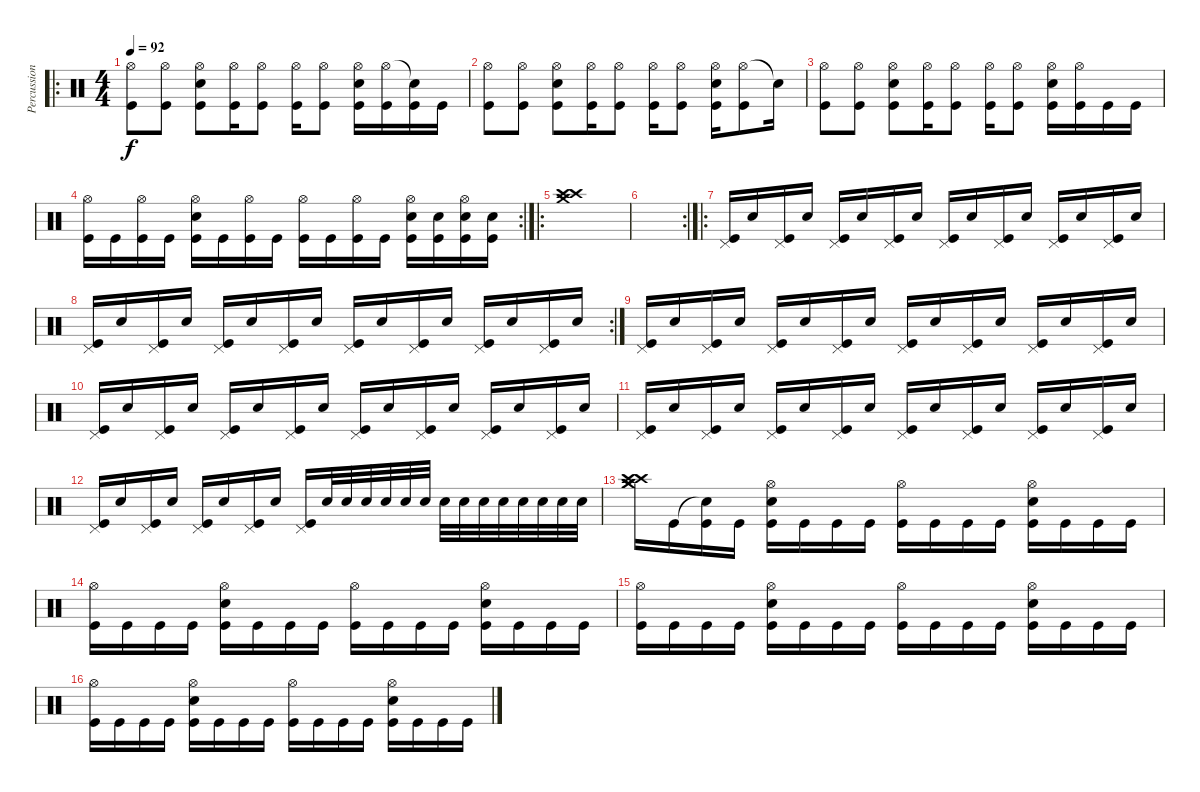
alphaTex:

\track ("Percussion" "Percussion") {instrument percussion}
\staff {score}
\articulation defaults
\ro
\ts (4 4)
\tempo 92
\clef neutral
\ks c
("Hi-Hat (open)" "Kick (hit)").8{dy f} ("Hi-Hat (open)" "Kick (hit)").8 ("Hi-Hat (open)" "Electric Snare (hit)" "Kick (hit)").8 ("Hi-Hat (open)" "Kick (hit)").16 ("Hi-Hat (open)" "Kick (hit)").8 ("Hi-Hat (open)" "Kick (hit)").16 ("Hi-Hat (open)" "Kick (hit)").8 ("Hi-Hat (open)" "Electric Snare (hit)" "Kick (hit)").16 ("Hi-Hat (open)" "Kick (hit)").16 ("Snare (hit)"{t} "Kick (hit)").16 "Kick (hit)".16 |
("Hi-Hat (open)" "Kick (hit)").8 ("Hi-Hat (open)" "Kick (hit)").8 ("Hi-Hat (open)" "Electric Snare (hit)" "Kick (hit)").8 ("Hi-Hat (open)" "Kick (hit)").16 ("Hi-Hat (open)" "Kick (hit)").8 ("Hi-Hat (open)" "Kick (hit)").16 ("Hi-Hat (open)" "Kick (hit)").8 ("Hi-Hat (open)" "Electric Snare (hit)" "Kick (hit)").16 ("Hi-Hat (open)" "Kick (hit)").8 "Snare (hit)"{t}.16 |
("Hi-Hat (open)" "Kick (hit)").8 ("Hi-Hat (open)" "Kick (hit)").8 ("Hi-Hat (open)" "Electric Snare (hit)" "Kick (hit)").8 ("Hi-Hat (open)" "Kick (hit)").16 ("Hi-Hat (open)" "Kick (hit)").8 ("Hi-Hat (open)" "Kick (hit)").16 ("Hi-Hat (open)" "Kick (hit)").8 ("Hi-Hat (open)" "Electric Snare (hit)" "Kick (hit)").16 ("Hi-Hat (open)" "Kick (hit)").16 "Kick (hit)".16 "Kick (hit)".16 |
\rc 2
("Hi-Hat (open)" "Kick (hit)").16 "Kick (hit)".16 ("Hi-Hat (open)" "Kick (hit)").16 "Kick (hit)".16 ("Hi-Hat (open)" "Electric Snare (hit)" "Kick (hit)").16 "Kick (hit)".16 ("Hi-Hat (open)" "Kick (hit)").16 "Kick (hit)".16 ("Hi-Hat (open)" "Kick (hit)").16 "Kick (hit)".16 ("Hi-Hat (open)" "Kick (hit)").16 "Kick (hit)".16 ("Hi-Hat (open)" "Electric Snare (hit)" "Kick (hit)").16 ("Electric Snare (hit)" "Kick (hit)").16 ("Hi-Hat (open)" "Electric Snare (hit)" "Kick (hit)").16 ("Electric Snare (hit)" "Kick (hit)").16 |
\ro
("Crash high (hit)" "Crash high (hit)" "Crash medium (hit)").1 |
\rc 2
|
\ro
("Pedal Hi-Hat (hit)" "Kick (hit)").16 "Electric Snare (hit)".16 ("Pedal Hi-Hat (hit)" "Kick (hit)").16 "Electric Snare (hit)".16 ("Pedal Hi-Hat (hit)" "Kick (hit)").16 "Electric Snare (hit)".16 ("Pedal Hi-Hat (hit)" "Kick (hit)").16 "Electric Snare (hit)".16 ("Pedal Hi-Hat (hit)" "Kick (hit)").16 "Electric Snare (hit)".16 ("Pedal Hi-Hat (hit)" "Kick (hit)").16 "Electric Snare (hit)".16 ("Pedal Hi-Hat (hit)" "Kick (hit)").16 "Electric Snare (hit)".16 ("Pedal Hi-Hat (hit)" "Kick (hit)").16 "Electric Snare (hit)".16 |
\rc 2
("Pedal Hi-Hat (hit)" "Kick (hit)").16 "Electric Snare (hit)".16 ("Pedal Hi-Hat (hit)" "Kick (hit)").16 "Electric Snare (hit)".16 ("Pedal Hi-Hat (hit)" "Kick (hit)").16 "Electric Snare (hit)".16 ("Pedal Hi-Hat (hit)" "Kick (hit)").16 "Electric Snare (hit)".16 ("Pedal Hi-Hat (hit)" "Kick (hit)").16 "Electric Snare (hit)".16 ("Pedal Hi-Hat (hit)" "Kick (hit)").16 "Electric Snare (hit)".16 ("Pedal Hi-Hat (hit)" "Kick (hit)").16 "Electric Snare (hit)".16 ("Pedal Hi-Hat (hit)" "Kick (hit)").16 "Electric Snare (hit)".16 |
("Pedal Hi-Hat (hit)" "Kick (hit)").16 "Electric Snare (hit)".16 ("Pedal Hi-Hat (hit)" "Kick (hit)").16 "Electric Snare (hit)".16 ("Pedal Hi-Hat (hit)" "Kick (hit)").16 "Electric Snare (hit)".16 ("Pedal Hi-Hat (hit)" "Kick (hit)").16 "Electric Snare (hit)".16 ("Pedal Hi-Hat (hit)" "Kick (hit)").16 "Electric Snare (hit)".16 ("Pedal Hi-Hat (hit)" "Kick (hit)").16 "Electric Snare (hit)".16 ("Pedal Hi-Hat (hit)" "Kick (hit)").16 "Electric Snare (hit)".16 ("Pedal Hi-Hat (hit)" "Kick (hit)").16 "Electric Snare (hit)".16 |
("Pedal Hi-Hat (hit)" "Kick (hit)").16 "Electric Snare (hit)".16 ("Pedal Hi-Hat (hit)" "Kick (hit)").16 "Electric Snare (hit)".16 ("Pedal Hi-Hat (hit)" "Kick (hit)").16 "Electric Snare (hit)".16 ("Pedal Hi-Hat (hit)" "Kick (hit)").16 "Electric Snare (hit)".16 ("Pedal Hi-Hat (hit)" "Kick (hit)").16 "Electric Snare (hit)".16 ("Pedal Hi-Hat (hit)" "Kick (hit)").16 "Electric Snare (hit)".16 ("Pedal Hi-Hat (hit)" "Kick (hit)").16 "Electric Snare (hit)".16 ("Pedal Hi-Hat (hit)" "Kick (hit)").16 "Electric Snare (hit)".16 |
("Pedal Hi-Hat (hit)" "Kick (hit)").16 "Electric Snare (hit)".16 ("Pedal Hi-Hat (hit)" "Kick (hit)").16 "Electric Snare (hit)".16 ("Pedal Hi-Hat (hit)" "Kick (hit)").16 "Electric Snare (hit)".16 ("Pedal Hi-Hat (hit)" "Kick (hit)").16 "Electric Snare (hit)".16 ("Pedal Hi-Hat (hit)" "Kick (hit)").16 "Electric Snare (hit)".16 ("Pedal Hi-Hat (hit)" "Kick (hit)").16 "Electric Snare (hit)".16 ("Pedal Hi-Hat (hit)" "Kick (hit)").16 "Electric Snare (hit)".16 ("Pedal Hi-Hat (hit)" "Kick (hit)").16 "Electric Snare (hit)".16 |
("Pedal Hi-Hat (hit)" "Kick (hit)").16 "Electric Snare (hit)".16 ("Pedal Hi-Hat (hit)" "Kick (hit)").16 "Electric Snare (hit)".16 ("Pedal Hi-Hat (hit)" "Kick (hit)").16 "Electric Snare (hit)".16 ("Pedal Hi-Hat (hit)" "Kick (hit)").16 "Electric Snare (hit)".16 ("Pedal Hi-Hat (hit)" "Kick (hit)").16 "Electric Snare (hit)".32 "Electric Snare (hit)".32 "Electric Snare (hit)".32 "Electric Snare (hit)".32 "Electric Snare (hit)".32 "Electric Snare (hit)".32 "Electric Snare (hit)".32 "Electric Snare (hit)".32 "Electric Snare (hit)".32 "Electric Snare (hit)".32 "Electric Snare (hit)".32 "Electric Snare (hit)".32 "Electric Snare (hit)".32 "Electric Snare (hit)".32 |
("Crash high (hit)" "Crash high (hit)" "Crash medium (hit)" "Crash medium (hit)").16 "Kick (hit)".16 ("Snare (hit)"{t} "Kick (hit)").16 "Kick (hit)".16 ("Hi-Hat (open)" "Electric Snare (hit)" "Kick (hit)").16 "Kick (hit)".16 "Kick (hit)".16 "Kick (hit)".16 ("Hi-Hat (open)" "Kick (hit)").16 "Kick (hit)".16 "Kick (hit)".16 "Kick (hit)".16 ("Hi-Hat (open)" "Electric Snare (hit)" "Kick (hit)").16 "Kick (hit)".16 "Kick (hit)".16 "Kick (hit)".16 |
("Hi-Hat (open)" "Kick (hit)").16 "Kick (hit)".16 "Kick (hit)".16 "Kick (hit)".16 ("Hi-Hat (open)" "Electric Snare (hit)" "Kick (hit)").16 "Kick (hit)".16 "Kick (hit)".16 "Kick (hit)".16 ("Hi-Hat (open)" "Kick (hit)").16 "Kick (hit)".16 "Kick (hit)".16 "Kick (hit)".16 ("Hi-Hat (open)" "Electric Snare (hit)" "Kick (hit)").16 "Kick (hit)".16 "Kick (hit)".16 "Kick (hit)".16 |
("Hi-Hat (open)" "Kick (hit)").16 "Kick (hit)".16 "Kick (hit)".16 "Kick (hit)".16 ("Hi-Hat (open)" "Electric Snare (hit)" "Kick (hit)").16 "Kick (hit)".16 "Kick (hit)".16 "Kick (hit)".16 ("Hi-Hat (open)" "Kick (hit)").16 "Kick (hit)".16 "Kick (hit)".16 "Kick (hit)".16 ("Hi-Hat (open)" "Electric Snare (hit)" "Kick (hit)").16 "Kick (hit)".16 "Kick (hit)".16 "Kick (hit)".16 |
("Hi-Hat (open)" "Kick (hit)").16 "Kick (hit)".16 "Kick (hit)".16 "Kick (hit)".16 ("Hi-Hat (open)" "Electric Snare (hit)" "Kick (hit)").16 "Kick (hit)".16 "Kick (hit)".16 "Kick (hit)".16 ("Hi-Hat (open)" "Kick (hit)").16 "Kick (hit)".16 "Kick (hit)".16 "Kick (hit)".16 ("Hi-Hat (open)" "Electric Snare (hit)" "Kick (hit)").16 "Kick (hit)".16 "Kick (hit)".16 "Kick (hit)".16
